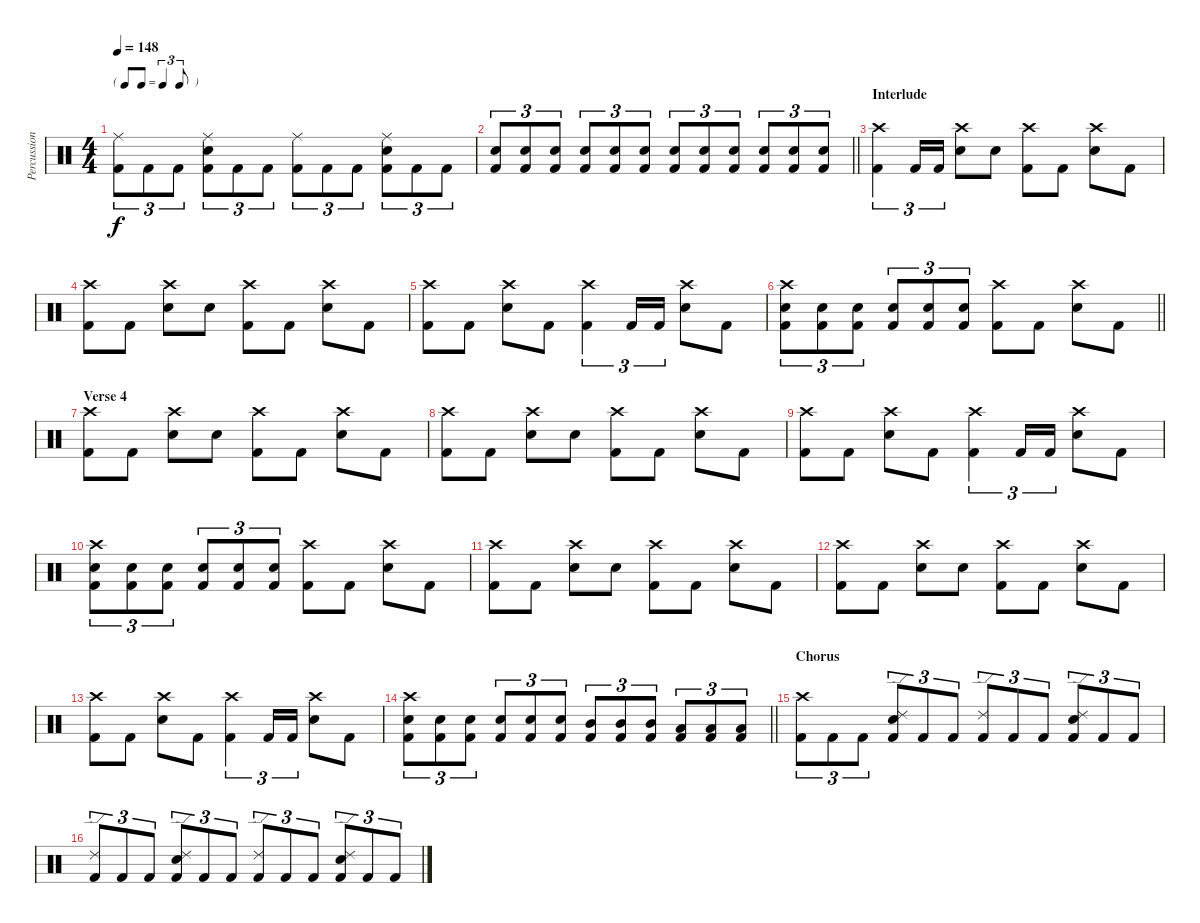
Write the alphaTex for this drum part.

\track ("Percussion" "Percussion") {instrument percussion}
\staff {score}
\articulation defaults
\ts (4 4)
\tf triplet8th
\tempo 148
\clef neutral
\ks c
("Ride (middle)" "Kick (hit) 2").8{tu (3 2) dy f} "Kick (hit) 2".8{tu (3 2)} "Kick (hit) 2".8{tu (3 2)} ("Ride (middle)" "Snare (hit) 2" "Kick (hit) 2").8{tu (3 2)} "Kick (hit) 2".8{tu (3 2)} "Kick (hit) 2".8{tu (3 2)} ("Ride (middle)" "Kick (hit) 2").8{tu (3 2)} "Kick (hit) 2".8{tu (3 2)} "Kick (hit) 2".8{tu (3 2)} ("Ride (middle)" "Snare (hit) 2" "Kick (hit) 2").8{tu (3 2)} "Kick (hit) 2".8{tu (3 2)} "Kick (hit) 2".8{tu (3 2)} |
\barLineRight lightlight
("Snare (hit) 2" "Kick (hit) 2").8{tu (3 2)} ("Snare (hit) 2" "Kick (hit) 2").8{tu (3 2)} ("Snare (hit) 2" "Kick (hit) 2").8{tu (3 2)} ("Snare (hit) 2" "Kick (hit) 2").8{tu (3 2)} ("Snare (hit) 2" "Kick (hit) 2").8{tu (3 2)} ("Snare (hit) 2" "Kick (hit) 2").8{tu (3 2)} ("Snare (hit) 2" "Kick (hit) 2").8{tu (3 2)} ("Snare (hit) 2" "Kick (hit) 2").8{tu (3 2)} ("Snare (hit) 2" "Kick (hit) 2").8{tu (3 2)} ("Snare (hit) 2" "Kick (hit) 2").8{tu (3 2)} ("Snare (hit) 2" "Kick (hit) 2").8{tu (3 2)} ("Snare (hit) 2" "Kick (hit) 2").8{tu (3 2)} |
\section ("" "Interlude")
("Crash high (hit)" "Kick (hit) 2").4{tu (3 2)} "Kick (hit) 2".16{tu (3 2)} "Kick (hit) 2".16{tu (3 2)} ("Crash high (hit)" "Snare (hit) 2").8 "Snare (hit) 2".8 ("Crash high (hit)" "Kick (hit) 2").8 "Kick (hit) 2".8 ("Crash high (hit)" "Snare (hit) 2").8 "Kick (hit) 2".8 |
("Crash high (hit)" "Kick (hit) 2").8 "Kick (hit) 2".8 ("Crash high (hit)" "Snare (hit) 2").8 "Snare (hit) 2".8 ("Crash high (hit)" "Kick (hit) 2").8 "Kick (hit) 2".8 ("Crash high (hit)" "Snare (hit) 2").8 "Kick (hit) 2".8 |
("Crash high (hit)" "Kick (hit) 2").8 "Kick (hit) 2".8 ("Crash high (hit)" "Snare (hit) 2").8 "Kick (hit) 2".8 ("Crash high (hit)" "Kick (hit) 2").4{tu (3 2)} "Kick (hit) 2".16{tu (3 2)} "Kick (hit) 2".16{tu (3 2)} ("Crash high (hit)" "Snare (hit) 2").8 "Kick (hit) 2".8 |
\barLineRight lightlight
("Crash high (hit)" "Snare (hit) 2" "Kick (hit) 2").8{tu (3 2)} ("Snare (hit) 2" "Kick (hit) 2").8{tu (3 2)} ("Snare (hit) 2" "Kick (hit) 2").8{tu (3 2)} ("Snare (hit) 2" "Kick (hit) 2").8{tu (3 2)} ("Snare (hit) 2" "Kick (hit) 2").8{tu (3 2)} ("Snare (hit) 2" "Kick (hit) 2").8{tu (3 2)} ("Crash high (hit)" "Kick (hit) 2").8 "Kick (hit) 2".8 ("Crash high (hit)" "Snare (hit) 2").8 "Kick (hit) 2".8 |
\section ("" "Verse 4")
("Crash high (hit)" "Kick (hit) 2").8 "Kick (hit) 2".8 ("Crash high (hit)" "Snare (hit) 2").8 "Snare (hit) 2".8 ("Crash high (hit)" "Kick (hit) 2").8 "Kick (hit) 2".8 ("Crash high (hit)" "Snare (hit) 2").8 "Kick (hit) 2".8 |
("Crash high (hit)" "Kick (hit) 2").8 "Kick (hit) 2".8 ("Crash high (hit)" "Snare (hit) 2").8 "Snare (hit) 2".8 ("Crash high (hit)" "Kick (hit) 2").8 "Kick (hit) 2".8 ("Crash high (hit)" "Snare (hit) 2").8 "Kick (hit) 2".8 |
("Crash high (hit)" "Kick (hit) 2").8 "Kick (hit) 2".8 ("Crash high (hit)" "Snare (hit) 2").8 "Kick (hit) 2".8 ("Crash high (hit)" "Kick (hit) 2").4{tu (3 2)} "Kick (hit) 2".16{tu (3 2)} "Kick (hit) 2".16{tu (3 2)} ("Crash high (hit)" "Snare (hit) 2").8 "Kick (hit) 2".8 |
("Crash high (hit)" "Snare (hit) 2" "Kick (hit) 2").8{tu (3 2)} ("Snare (hit) 2" "Kick (hit) 2").8{tu (3 2)} ("Snare (hit) 2" "Kick (hit) 2").8{tu (3 2)} ("Snare (hit) 2" "Kick (hit) 2").8{tu (3 2)} ("Snare (hit) 2" "Kick (hit) 2").8{tu (3 2)} ("Snare (hit) 2" "Kick (hit) 2").8{tu (3 2)} ("Crash high (hit)" "Kick (hit) 2").8 "Kick (hit) 2".8 ("Crash high (hit)" "Snare (hit) 2").8 "Kick (hit) 2".8 |
("Crash high (hit)" "Kick (hit) 2").8 "Kick (hit) 2".8 ("Crash high (hit)" "Snare (hit) 2").8 "Snare (hit) 2".8 ("Crash high (hit)" "Kick (hit) 2").8 "Kick (hit) 2".8 ("Crash high (hit)" "Snare (hit) 2").8 "Kick (hit) 2".8 |
("Crash high (hit)" "Kick (hit) 2").8 "Kick (hit) 2".8 ("Crash high (hit)" "Snare (hit) 2").8 "Snare (hit) 2".8 ("Crash high (hit)" "Kick (hit) 2").8 "Kick (hit) 2".8 ("Crash high (hit)" "Snare (hit) 2").8 "Kick (hit) 2".8 |
("Crash high (hit)" "Kick (hit) 2").8 "Kick (hit) 2".8 ("Crash high (hit)" "Snare (hit) 2").8 "Kick (hit) 2".8 ("Crash high (hit)" "Kick (hit) 2").4{tu (3 2)} "Kick (hit) 2".16{tu (3 2)} "Kick (hit) 2".16{tu (3 2)} ("Crash high (hit)" "Snare (hit) 2").8 "Kick (hit) 2".8 |
\barLineRight lightlight
("Crash high (hit)" "Snare (hit) 2" "Kick (hit) 2").8{tu (3 2)} ("Snare (hit) 2" "Kick (hit) 2").8{tu (3 2)} ("Snare (hit) 2" "Kick (hit) 2").8{tu (3 2)} ("Snare (hit) 2" "Kick (hit) 2").8{tu (3 2)} ("Snare (hit) 2" "Kick (hit) 2").8{tu (3 2)} ("Snare (hit) 2" "Kick (hit) 2").8{tu (3 2)} ("Mid Tom (hit)" "Kick (hit) 2").8{tu (3 2)} ("Mid Tom (hit)" "Kick (hit) 2").8{tu (3 2)} ("Mid Tom (hit)" "Kick (hit) 2").8{tu (3 2)} ("Low Tom (hit)" "Kick (hit) 2").8{tu (3 2)} ("Low Tom (hit)" "Kick (hit) 2").8{tu (3 2)} ("Low Tom (hit)" "Kick (hit) 2").8{tu (3 2)} |
\section ("" "Chorus")
("Crash high (hit)" "Kick (hit) 2").8{tu (3 2)} "Kick (hit) 2".8{tu (3 2)} "Kick (hit) 2".8{tu (3 2)} ("Ride (edge) 2" "Snare (hit) 2" "Kick (hit) 2").8{tu (3 2)} "Kick (hit) 2".8{tu (3 2)} "Kick (hit) 2".8{tu (3 2)} ("Ride (edge) 2" "Kick (hit) 2").8{tu (3 2)} "Kick (hit) 2".8{tu (3 2)} "Kick (hit) 2".8{tu (3 2)} ("Ride (edge) 2" "Snare (hit) 2" "Kick (hit) 2").8{tu (3 2)} "Kick (hit) 2".8{tu (3 2)} "Kick (hit) 2".8{tu (3 2)} |
("Ride (edge) 2" "Kick (hit) 2").8{tu (3 2)} "Kick (hit) 2".8{tu (3 2)} "Kick (hit) 2".8{tu (3 2)} ("Ride (edge) 2" "Snare (hit) 2" "Kick (hit) 2").8{tu (3 2)} "Kick (hit) 2".8{tu (3 2)} "Kick (hit) 2".8{tu (3 2)} ("Ride (edge) 2" "Kick (hit) 2").8{tu (3 2)} "Kick (hit) 2".8{tu (3 2)} "Kick (hit) 2".8{tu (3 2)} ("Ride (edge) 2" "Snare (hit) 2" "Kick (hit) 2").8{tu (3 2)} "Kick (hit) 2".8{tu (3 2)} "Kick (hit) 2".8{tu (3 2)}
